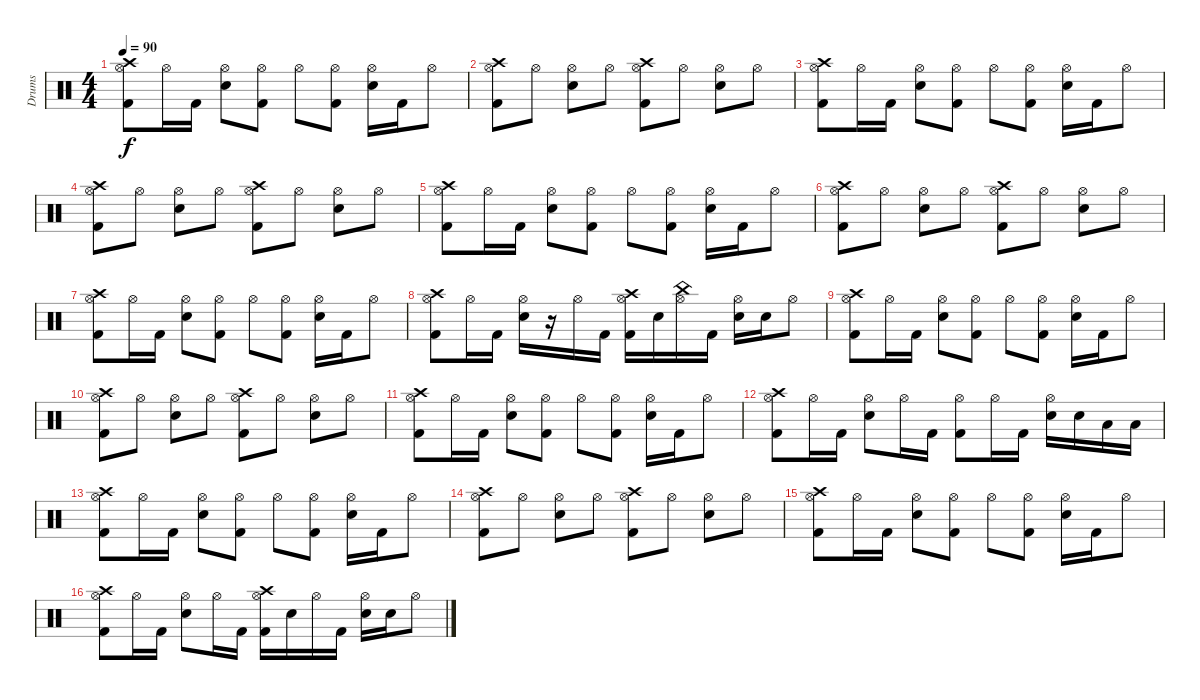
\track ("Drums" "Drums") {instrument percussion}
\staff {score}
\articulation defaults
\ts (4 4)
\tempo 90
\clef neutral
\ks c
("Crash high (hit)" "Hi-Hat (open)" "Kick (hit) 2").8{dy f} "Hi-Hat (open)".16 "Kick (hit) 2".16 ("Hi-Hat (open)" "Snare (hit) 2").8 ("Hi-Hat (open)" "Kick (hit) 2").8 "Hi-Hat (open)".8 ("Kick (hit) 2" "Hi-Hat (open)").8 ("Snare (hit) 2" "Hi-Hat (open)").16 "Kick (hit) 2".16 "Hi-Hat (open)".8 |
("Crash high (hit)" "Hi-Hat (open)" "Kick (hit) 2").8 "Hi-Hat (open)".8 ("Snare (hit) 2" "Hi-Hat (open)").8 "Hi-Hat (open)".8 ("Crash high (hit)" "Kick (hit) 2" "Hi-Hat (open)").8 "Hi-Hat (open)".8 ("Snare (hit) 2" "Hi-Hat (open)").8 "Hi-Hat (open)".8 |
("Crash high (hit)" "Hi-Hat (open)" "Kick (hit) 2").8 "Hi-Hat (open)".16 "Kick (hit) 2".16 ("Hi-Hat (open)" "Snare (hit) 2").8 ("Hi-Hat (open)" "Kick (hit) 2").8 "Hi-Hat (open)".8 ("Kick (hit) 2" "Hi-Hat (open)").8 ("Snare (hit) 2" "Hi-Hat (open)").16 "Kick (hit) 2".16 "Hi-Hat (open)".8 |
("Crash high (hit)" "Hi-Hat (open)" "Kick (hit) 2").8 "Hi-Hat (open)".8 ("Snare (hit) 2" "Hi-Hat (open)").8 "Hi-Hat (open)".8 ("Crash high (hit)" "Kick (hit) 2" "Hi-Hat (open)").8 "Hi-Hat (open)".8 ("Snare (hit) 2" "Hi-Hat (open)").8 "Hi-Hat (open)".8 |
("Crash high (hit)" "Hi-Hat (open)" "Kick (hit) 2").8 "Hi-Hat (open)".16 "Kick (hit) 2".16 ("Hi-Hat (open)" "Snare (hit) 2").8 ("Hi-Hat (open)" "Kick (hit) 2").8 "Hi-Hat (open)".8 ("Kick (hit) 2" "Hi-Hat (open)").8 ("Snare (hit) 2" "Hi-Hat (open)").16 "Kick (hit) 2".16 "Hi-Hat (open)".8 |
("Crash high (hit)" "Hi-Hat (open)" "Kick (hit) 2").8 "Hi-Hat (open)".8 ("Snare (hit) 2" "Hi-Hat (open)").8 "Hi-Hat (open)".8 ("Crash high (hit)" "Kick (hit) 2" "Hi-Hat (open)").8 "Hi-Hat (open)".8 ("Snare (hit) 2" "Hi-Hat (open)").8 "Hi-Hat (open)".8 |
("Crash high (hit)" "Hi-Hat (open)" "Kick (hit) 2").8 "Hi-Hat (open)".16 "Kick (hit) 2".16 ("Hi-Hat (open)" "Snare (hit) 2").8 ("Hi-Hat (open)" "Kick (hit) 2").8 "Hi-Hat (open)".8 ("Kick (hit) 2" "Hi-Hat (open)").8 ("Snare (hit) 2" "Hi-Hat (open)").16 "Kick (hit) 2".16 "Hi-Hat (open)".8 |
("Hi-Hat (open)" "Crash high (hit)" "Kick (hit) 2").8 "Hi-Hat (open)".16 "Kick (hit) 2".16 ("Hi-Hat (open)" "Snare (hit) 2").16 r.16 "Hi-Hat (open)".16 "Kick (hit) 2".16 ("Hi-Hat (open)" "Crash high (hit)" "Kick (hit) 2").16 "Snare (hit) 2".16 ("Hi-Hat (open)" "China (hit)").16 "Kick (hit) 2".16 ("Hi-Hat (open)" "Snare (hit) 2").16 "Snare (hit) 2".16 "Hi-Hat (open)".8 |
("Crash high (hit)" "Hi-Hat (open)" "Kick (hit) 2").8 "Hi-Hat (open)".16 "Kick (hit) 2".16 ("Hi-Hat (open)" "Snare (hit) 2").8 ("Hi-Hat (open)" "Kick (hit) 2").8 "Hi-Hat (open)".8 ("Kick (hit) 2" "Hi-Hat (open)").8 ("Snare (hit) 2" "Hi-Hat (open)").16 "Kick (hit) 2".16 "Hi-Hat (open)".8 |
("Crash high (hit)" "Hi-Hat (open)" "Kick (hit) 2").8 "Hi-Hat (open)".8 ("Snare (hit) 2" "Hi-Hat (open)").8 "Hi-Hat (open)".8 ("Crash high (hit)" "Kick (hit) 2" "Hi-Hat (open)").8 "Hi-Hat (open)".8 ("Snare (hit) 2" "Hi-Hat (open)").8 "Hi-Hat (open)".8 |
("Crash high (hit)" "Hi-Hat (open)" "Kick (hit) 2").8 "Hi-Hat (open)".16 "Kick (hit) 2".16 ("Hi-Hat (open)" "Snare (hit) 2").8 ("Hi-Hat (open)" "Kick (hit) 2").8 "Hi-Hat (open)".8 ("Kick (hit) 2" "Hi-Hat (open)").8 ("Snare (hit) 2" "Hi-Hat (open)").16 "Kick (hit) 2".16 "Hi-Hat (open)".8 |
("Hi-Hat (open)" "Kick (hit) 2" "Crash high (hit)").8 "Hi-Hat (open)".16 "Kick (hit) 2".16 ("Snare (hit) 2" "Hi-Hat (open)").8 "Hi-Hat (open)".16 "Kick (hit) 2".16 ("Hi-Hat (open)" "Kick (hit) 2").8 "Hi-Hat (open)".16 "Kick (hit) 2".16 ("Hi-Hat (open)" "Snare (hit) 2").16 "Snare (hit) 2".16 "Low Tom (hit)".16 "Low Floor Tom (hit)".16 |
("Crash high (hit)" "Hi-Hat (open)" "Kick (hit) 2").8 "Hi-Hat (open)".16 "Kick (hit) 2".16 ("Hi-Hat (open)" "Snare (hit) 2").8 ("Hi-Hat (open)" "Kick (hit) 2").8 "Hi-Hat (open)".8 ("Kick (hit) 2" "Hi-Hat (open)").8 ("Snare (hit) 2" "Hi-Hat (open)").16 "Kick (hit) 2".16 "Hi-Hat (open)".8 |
("Crash high (hit)" "Hi-Hat (open)" "Kick (hit) 2").8 "Hi-Hat (open)".8 ("Snare (hit) 2" "Hi-Hat (open)").8 "Hi-Hat (open)".8 ("Crash high (hit)" "Kick (hit) 2" "Hi-Hat (open)").8 "Hi-Hat (open)".8 ("Snare (hit) 2" "Hi-Hat (open)").8 "Hi-Hat (open)".8 |
("Crash high (hit)" "Hi-Hat (open)" "Kick (hit) 2").8 "Hi-Hat (open)".16 "Kick (hit) 2".16 ("Hi-Hat (open)" "Snare (hit) 2").8 ("Hi-Hat (open)" "Kick (hit) 2").8 "Hi-Hat (open)".8 ("Kick (hit) 2" "Hi-Hat (open)").8 ("Snare (hit) 2" "Hi-Hat (open)").16 "Kick (hit) 2".16 "Hi-Hat (open)".8 |
("Hi-Hat (open)" "Crash high (hit)" "Kick (hit) 2").8 "Hi-Hat (open)".16 "Kick (hit) 2".16 ("Hi-Hat (open)" "Snare (hit) 2").8 "Hi-Hat (open)".16 "Kick (hit) 2".16 ("Hi-Hat (open)" "Crash high (hit)" "Kick (hit) 2").16 "Snare (hit) 2".16 "Hi-Hat (open)".16 "Kick (hit) 2".16 ("Hi-Hat (open)" "Snare (hit) 2").16 "Snare (hit) 2".16 "Hi-Hat (open)".8
